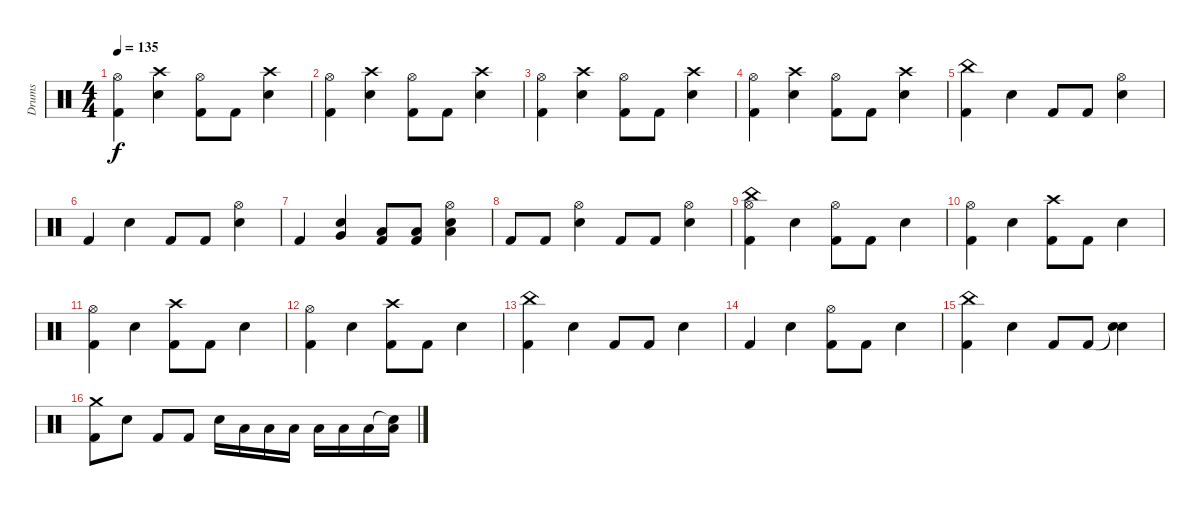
\track ("Drums" "Drums") {instrument percussion}
\staff {score}
\articulation defaults
\ts (4 4)
\tempo 135
\clef neutral
\ks c
("Hi-Hat (open)" "Kick (hit) 2").4{dy f} ("Crash high (hit)" "Electric Snare (hit)").4 ("Hi-Hat (open)" "Kick (hit) 2").8 "Kick (hit) 2".8 ("Crash high (hit)" "Electric Snare (hit)").4 |
("Hi-Hat (open)" "Kick (hit) 2").4 ("Crash high (hit)" "Electric Snare (hit)").4 ("Hi-Hat (open)" "Kick (hit) 2").8 "Kick (hit) 2".8 ("Crash high (hit)" "Electric Snare (hit)").4 |
("Hi-Hat (open)" "Kick (hit) 2").4 ("Crash high (hit)" "Electric Snare (hit)").4 ("Hi-Hat (open)" "Kick (hit) 2").8 "Kick (hit) 2".8 ("Crash high (hit)" "Electric Snare (hit)").4 |
("Hi-Hat (open)" "Kick (hit) 2").4 ("Crash high (hit)" "Electric Snare (hit)").4 ("Hi-Hat (open)" "Kick (hit) 2").8 "Kick (hit) 2".8 ("Crash high (hit)" "Electric Snare (hit)").4 |
("China (hit)" "Kick (hit) 2").4 "Electric Snare (hit)".4 "Kick (hit) 2".8 "Kick (hit) 2".8 ("Hi-Hat (open)" "Electric Snare (hit)").4 |
"Kick (hit) 2".4 "Electric Snare (hit)".4 "Kick (hit) 2".8 "Kick (hit) 2".8 ("Hi-Hat (open)" "Electric Snare (hit)").4 |
"Kick (hit) 2".4 ("Electric Snare (hit)" "Very Low Tom (hit)").4 ("Kick (hit) 2" "Low Floor Tom (hit)").8 ("Kick (hit) 2" "Low Floor Tom (hit)").8 ("Hi-Hat (open)" "Electric Snare (hit)" "Low Floor Tom (hit)").4 |
"Kick (hit) 2".8 "Kick (hit) 2".8 ("Hi-Hat (open)" "Electric Snare (hit)").4 "Kick (hit) 2".8 "Kick (hit) 2".8 ("Hi-Hat (open)" "Electric Snare (hit)").4 |
("China (hit)" "Hi-Hat (open)" "Kick (hit) 2").4 "Electric Snare (hit)".4 ("Hi-Hat (open)" "Kick (hit) 2").8 "Kick (hit) 2".8 "Electric Snare (hit)".4 |
("Hi-Hat (open)" "Kick (hit) 2").4 "Electric Snare (hit)".4 ("Crash high (hit)" "Kick (hit) 2").8 "Kick (hit) 2".8 "Electric Snare (hit)".4 |
("Hi-Hat (open)" "Kick (hit) 2").4 "Electric Snare (hit)".4 ("Crash high (hit)" "Kick (hit) 2").8 "Kick (hit) 2".8 "Electric Snare (hit)".4 |
("Hi-Hat (open)" "Kick (hit) 2").4 "Electric Snare (hit)".4 ("Crash high (hit)" "Kick (hit) 2").8 "Kick (hit) 2".8 "Electric Snare (hit)".4 |
("China (hit)" "Kick (hit) 2").4 "Electric Snare (hit)".4 "Kick (hit) 2".8 "Kick (hit) 2".8 "Electric Snare (hit)".4 |
"Kick (hit) 2".4 "Electric Snare (hit)".4 ("Hi-Hat (open)" "Kick (hit) 2").8 "Kick (hit) 2".8 "Electric Snare (hit)".4 |
("China (hit)" "Kick (hit) 2").4 "Electric Snare (hit)".4 "Kick (hit) 2".8 "Kick (hit) 2".8 ("Snare (hit)"{t} "Electric Snare (hit)").4 |
("Crash medium (hit)" "Kick (hit) 2").8 "Electric Snare (hit)".8 "Kick (hit) 2".8 "Kick (hit) 2".8 "Electric Snare (hit)".16 "Low Tom (hit)".16 "Low Tom (hit)".16 "Low Tom (hit)".16 "Low Tom (hit)".16 "Low Tom (hit)".16 "Low Tom (hit)".16 ("Snare (hit)"{t} "Low Tom (hit)").16
